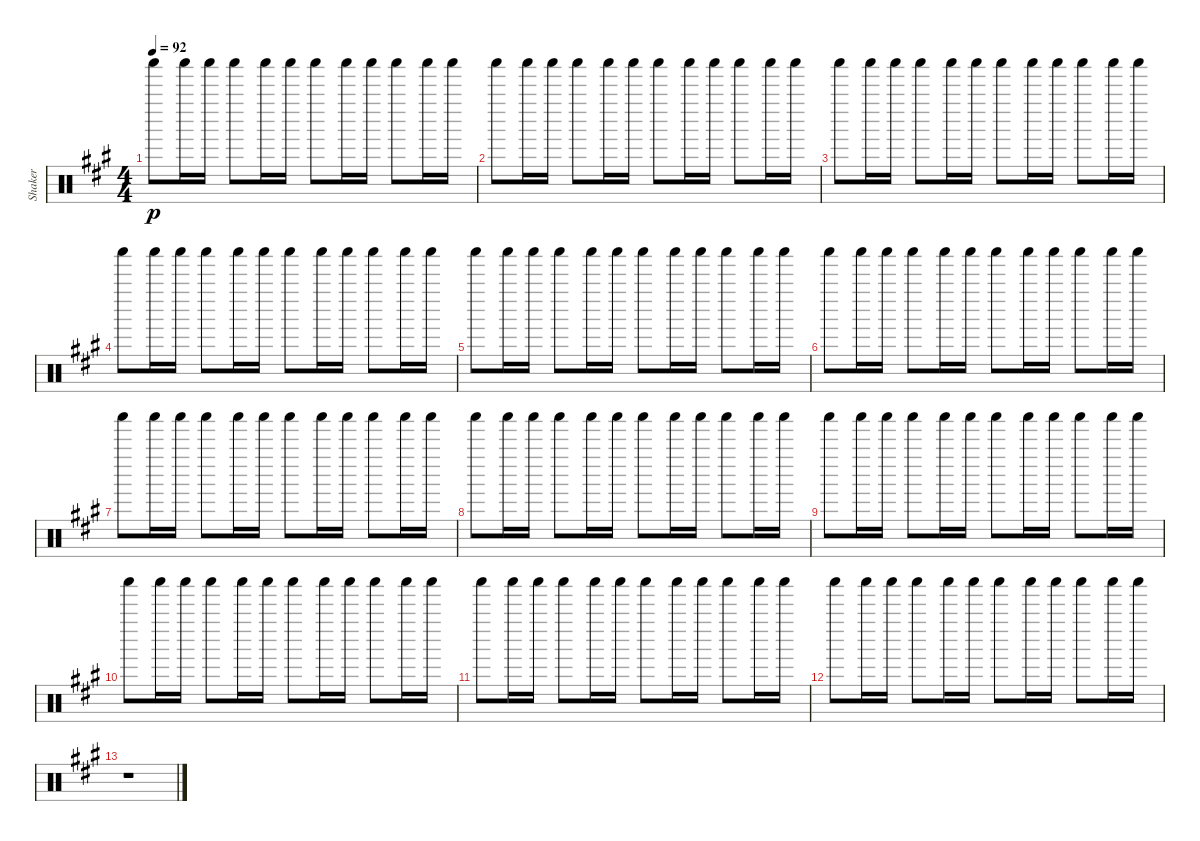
\track ("Shaker" "Shaker") {instrument percussion}
\staff {score}
\articulation defaults
\ts (4 4)
\tempo 92
\clef neutral
\ks f#minor "Shaker (hit)".8{dy p} "Shaker (hit)".16 "Shaker (hit)".16 "Shaker (hit)".8 "Shaker (hit)".16 "Shaker (hit)".16 "Shaker (hit)".8 "Shaker (hit)".16 "Shaker (hit)".16 "Shaker (hit)".8 "Shaker (hit)".16 "Shaker (hit)".16
|
"Shaker (hit)".8 "Shaker (hit)".16 "Shaker (hit)".16 "Shaker (hit)".8 "Shaker (hit)".16 "Shaker (hit)".16 "Shaker (hit)".8 "Shaker (hit)".16 "Shaker (hit)".16 "Shaker (hit)".8 "Shaker (hit)".16 "Shaker (hit)".16 |
"Shaker (hit)".8 "Shaker (hit)".16 "Shaker (hit)".16 "Shaker (hit)".8 "Shaker (hit)".16 "Shaker (hit)".16 "Shaker (hit)".8 "Shaker (hit)".16 "Shaker (hit)".16 "Shaker (hit)".8 "Shaker (hit)".16 "Shaker (hit)".16 |
"Shaker (hit)".8 "Shaker (hit)".16 "Shaker (hit)".16 "Shaker (hit)".8 "Shaker (hit)".16 "Shaker (hit)".16 "Shaker (hit)".8 "Shaker (hit)".16 "Shaker (hit)".16 "Shaker (hit)".8 "Shaker (hit)".16 "Shaker (hit)".16 |
"Shaker (hit)".8 "Shaker (hit)".16 "Shaker (hit)".16 "Shaker (hit)".8 "Shaker (hit)".16 "Shaker (hit)".16 "Shaker (hit)".8 "Shaker (hit)".16 "Shaker (hit)".16 "Shaker (hit)".8 "Shaker (hit)".16 "Shaker (hit)".16 |
"Shaker (hit)".8 "Shaker (hit)".16 "Shaker (hit)".16 "Shaker (hit)".8 "Shaker (hit)".16 "Shaker (hit)".16 "Shaker (hit)".8 "Shaker (hit)".16 "Shaker (hit)".16 "Shaker (hit)".8 "Shaker (hit)".16 "Shaker (hit)".16 |
"Shaker (hit)".8 "Shaker (hit)".16 "Shaker (hit)".16 "Shaker (hit)".8 "Shaker (hit)".16 "Shaker (hit)".16 "Shaker (hit)".8 "Shaker (hit)".16 "Shaker (hit)".16 "Shaker (hit)".8 "Shaker (hit)".16 "Shaker (hit)".16 |
"Shaker (hit)".8 "Shaker (hit)".16 "Shaker (hit)".16 "Shaker (hit)".8 "Shaker (hit)".16 "Shaker (hit)".16 "Shaker (hit)".8 "Shaker (hit)".16 "Shaker (hit)".16 "Shaker (hit)".8 "Shaker (hit)".16 "Shaker (hit)".16 |
"Shaker (hit)".8 "Shaker (hit)".16 "Shaker (hit)".16 "Shaker (hit)".8 "Shaker (hit)".16 "Shaker (hit)".16 "Shaker (hit)".8 "Shaker (hit)".16 "Shaker (hit)".16 "Shaker (hit)".8 "Shaker (hit)".16 "Shaker (hit)".16 |
"Shaker (hit)".8 "Shaker (hit)".16 "Shaker (hit)".16 "Shaker (hit)".8 "Shaker (hit)".16 "Shaker (hit)".16 "Shaker (hit)".8 "Shaker (hit)".16 "Shaker (hit)".16 "Shaker (hit)".8 "Shaker (hit)".16 "Shaker (hit)".16 |
"Shaker (hit)".8 "Shaker (hit)".16 "Shaker (hit)".16 "Shaker (hit)".8 "Shaker (hit)".16 "Shaker (hit)".16 "Shaker (hit)".8 "Shaker (hit)".16 "Shaker (hit)".16 "Shaker (hit)".8 "Shaker (hit)".16 "Shaker (hit)".16 |
"Shaker (hit)".8 "Shaker (hit)".16 "Shaker (hit)".16 "Shaker (hit)".8 "Shaker (hit)".16 "Shaker (hit)".16 "Shaker (hit)".8 "Shaker (hit)".16 "Shaker (hit)".16 "Shaker (hit)".8 "Shaker (hit)".16 "Shaker (hit)".16 |
r.1
